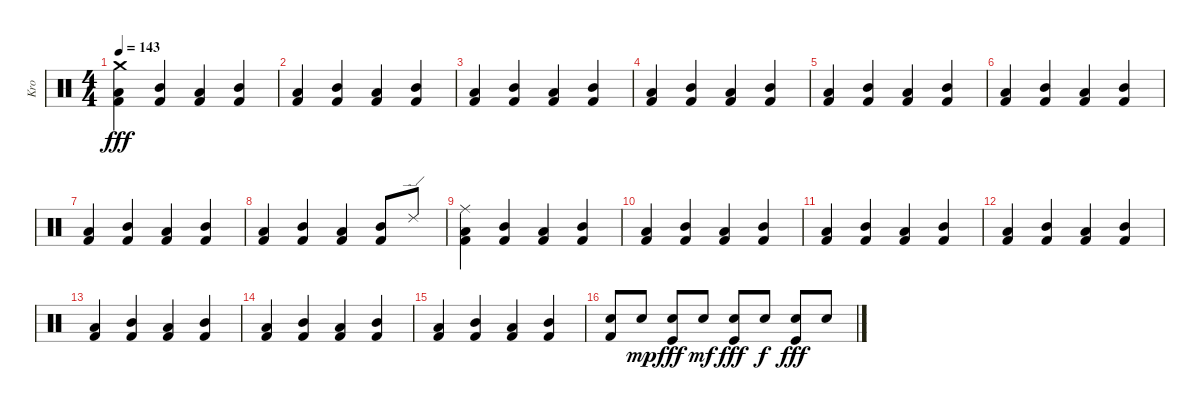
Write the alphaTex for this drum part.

\track ("Kro" "Kro") {instrument percussion}
\staff {score}
\articulation defaults
\ts (4 4)
\tempo 143
\clef neutral
\ks c
("Crash medium (hit)" "Low Tom (hit)" "Kick (hit) 2").4{dy fff} ("Mid Tom (hit)" "Kick (hit) 2").4 ("Low Tom (hit)" "Kick (hit) 2").4 ("Mid Tom (hit)" "Kick (hit) 2").4 |
("Low Tom (hit)" "Kick (hit) 2").4 ("Mid Tom (hit)" "Kick (hit) 2").4 ("Low Tom (hit)" "Kick (hit) 2").4 ("Mid Tom (hit)" "Kick (hit) 2").4 |
("Low Tom (hit)" "Kick (hit) 2").4 ("Mid Tom (hit)" "Kick (hit) 2").4 ("Low Tom (hit)" "Kick (hit) 2").4 ("Mid Tom (hit)" "Kick (hit) 2").4 |
("Low Tom (hit)" "Kick (hit) 2").4 ("Mid Tom (hit)" "Kick (hit) 2").4 ("Low Tom (hit)" "Kick (hit) 2").4 ("Mid Tom (hit)" "Kick (hit) 2").4 |
("Low Tom (hit)" "Kick (hit) 2").4 ("Mid Tom (hit)" "Kick (hit) 2").4 ("Low Tom (hit)" "Kick (hit) 2").4 ("Mid Tom (hit)" "Kick (hit) 2").4 |
("Low Tom (hit)" "Kick (hit) 2").4 ("Mid Tom (hit)" "Kick (hit) 2").4 ("Low Tom (hit)" "Kick (hit) 2").4 ("Mid Tom (hit)" "Kick (hit) 2").4 |
("Low Tom (hit)" "Kick (hit) 2").4 ("Mid Tom (hit)" "Kick (hit) 2").4 ("Low Tom (hit)" "Kick (hit) 2").4 ("Mid Tom (hit)" "Kick (hit) 2").4 |
("Low Tom (hit)" "Kick (hit) 2").4 ("Mid Tom (hit)" "Kick (hit) 2").4 ("Low Tom (hit)" "Kick (hit) 2").4 ("Mid Tom (hit)" "Kick (hit) 2").8 "Ride (edge) 2".8 |
("Ride (middle)" "Low Tom (hit)" "Kick (hit) 2").4 ("Mid Tom (hit)" "Kick (hit) 2").4 ("Low Tom (hit)" "Kick (hit) 2").4 ("Mid Tom (hit)" "Kick (hit) 2").4 |
("Low Tom (hit)" "Kick (hit) 2").4 ("Mid Tom (hit)" "Kick (hit) 2").4 ("Low Tom (hit)" "Kick (hit) 2").4 ("Mid Tom (hit)" "Kick (hit) 2").4 |
("Low Tom (hit)" "Kick (hit) 2").4 ("Mid Tom (hit)" "Kick (hit) 2").4 ("Low Tom (hit)" "Kick (hit) 2").4 ("Mid Tom (hit)" "Kick (hit) 2").4 |
("Low Tom (hit)" "Kick (hit) 2").4 ("Mid Tom (hit)" "Kick (hit) 2").4 ("Low Tom (hit)" "Kick (hit) 2").4 ("Mid Tom (hit)" "Kick (hit) 2").4 |
("Low Tom (hit)" "Kick (hit) 2").4 ("Mid Tom (hit)" "Kick (hit) 2").4 ("Low Tom (hit)" "Kick (hit) 2").4 ("Mid Tom (hit)" "Kick (hit) 2").4 |
("Low Tom (hit)" "Kick (hit) 2").4 ("Mid Tom (hit)" "Kick (hit) 2").4 ("Low Tom (hit)" "Kick (hit) 2").4 ("Mid Tom (hit)" "Kick (hit) 2").4 |
("Low Tom (hit)" "Kick (hit) 2").4 ("Mid Tom (hit)" "Kick (hit) 2").4 ("Low Tom (hit)" "Kick (hit) 2").4 ("Mid Tom (hit)" "Kick (hit) 2").4 |
("Electric Snare (hit)" "Kick (hit) 2").8 "Electric Snare (hit)".8{dy mp} ("Electric Snare (hit)" "Kick (hit)").8{dy fff} "Electric Snare (hit)".8{dy mf} ("Electric Snare (hit)" "Kick (hit)").8{dy fff} "Electric Snare (hit)".8{dy f} ("Electric Snare (hit)" "Kick (hit)").8{dy fff} "Electric Snare (hit)".8
